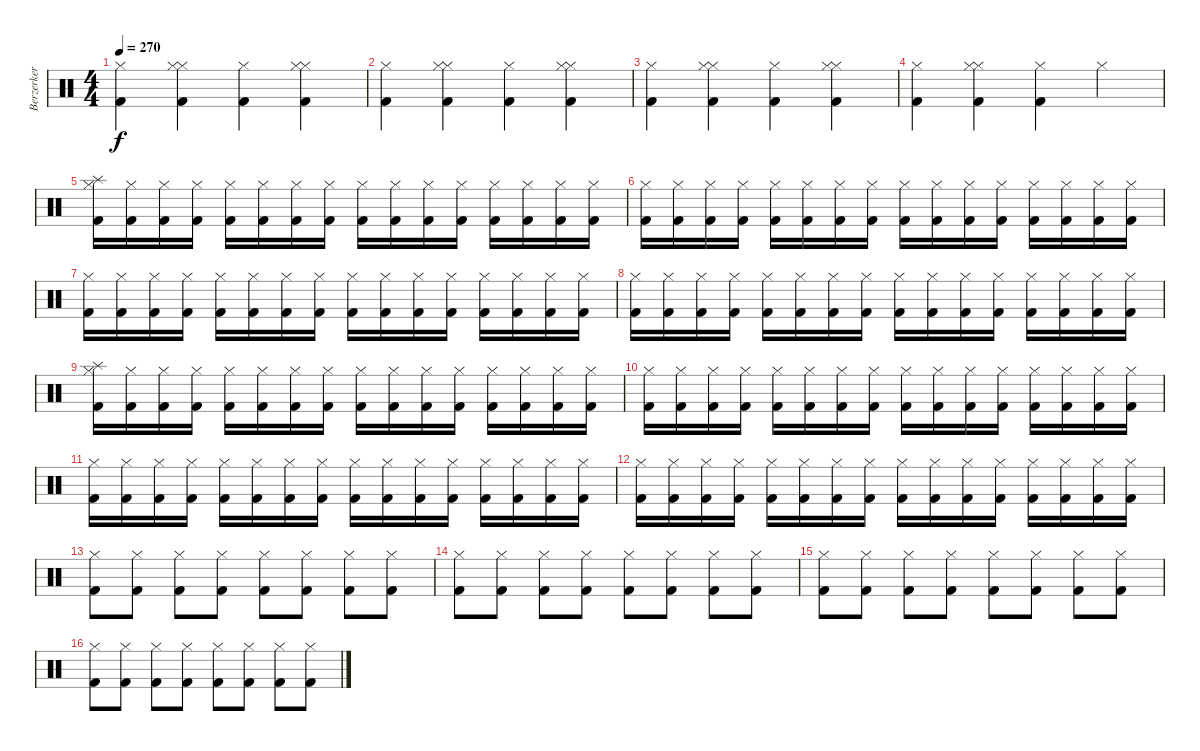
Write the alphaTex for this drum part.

\track ("Berzerker Drum Machine" "Berzerker ") {instrument percussion}
\staff {score}
\articulation defaults
\ts (4 4)
\tempo 270
\clef neutral
\ks c
("Kick (hit) 2" "Hi-Hat (closed)").4{dy f} ("Hi-Hat (closed)" "Kick (hit) 2" "Hi-Hat (closed)").4 ("Kick (hit) 2" "Hi-Hat (closed)").4 ("Hi-Hat (closed)" "Kick (hit) 2" "Hi-Hat (closed)").4 |
("Kick (hit) 2" "Hi-Hat (closed)").4 ("Hi-Hat (closed)" "Kick (hit) 2" "Hi-Hat (closed)").4 ("Kick (hit) 2" "Hi-Hat (closed)").4 ("Hi-Hat (closed)" "Kick (hit) 2" "Hi-Hat (closed)").4 |
("Kick (hit) 2" "Hi-Hat (closed)").4 ("Hi-Hat (closed)" "Kick (hit) 2" "Hi-Hat (closed)").4 ("Kick (hit) 2" "Hi-Hat (closed)").4 ("Hi-Hat (closed)" "Kick (hit) 2" "Hi-Hat (closed)").4 |
("Kick (hit) 2" "Hi-Hat (closed)").4 ("Hi-Hat (closed)" "Kick (hit) 2" "Hi-Hat (closed)").4 ("Kick (hit) 2" "Hi-Hat (closed)").4 "Hi-Hat (closed)".4 |
("Splash (hit)" "Kick (hit) 2" "Hi-Hat (closed)").16 ("Kick (hit) 2" "Hi-Hat (closed)").16 ("Kick (hit) 2" "Hi-Hat (closed)").16 ("Kick (hit) 2" "Hi-Hat (closed)").16 ("Kick (hit) 2" "Hi-Hat (closed)").16 ("Kick (hit) 2" "Hi-Hat (closed)").16 ("Kick (hit) 2" "Hi-Hat (closed)").16 ("Kick (hit) 2" "Hi-Hat (closed)").16 ("Kick (hit) 2" "Hi-Hat (closed)").16 ("Kick (hit) 2" "Hi-Hat (closed)").16 ("Kick (hit) 2" "Hi-Hat (closed)").16 ("Kick (hit) 2" "Hi-Hat (closed)").16 ("Kick (hit) 2" "Hi-Hat (closed)").16 ("Kick (hit) 2" "Hi-Hat (closed)").16 ("Kick (hit) 2" "Hi-Hat (closed)").16 ("Kick (hit) 2" "Hi-Hat (closed)").16 |
("Kick (hit) 2" "Hi-Hat (closed)").16 ("Kick (hit) 2" "Hi-Hat (closed)").16 ("Kick (hit) 2" "Hi-Hat (closed)").16 ("Kick (hit) 2" "Hi-Hat (closed)").16 ("Kick (hit) 2" "Hi-Hat (closed)").16 ("Kick (hit) 2" "Hi-Hat (closed)").16 ("Kick (hit) 2" "Hi-Hat (closed)").16 ("Kick (hit) 2" "Hi-Hat (closed)").16 ("Kick (hit) 2" "Hi-Hat (closed)").16 ("Kick (hit) 2" "Hi-Hat (closed)").16 ("Kick (hit) 2" "Hi-Hat (closed)").16 ("Kick (hit) 2" "Hi-Hat (closed)").16 ("Kick (hit) 2" "Hi-Hat (closed)").16 ("Kick (hit) 2" "Hi-Hat (closed)").16 ("Kick (hit) 2" "Hi-Hat (closed)").16 ("Kick (hit) 2" "Hi-Hat (closed)").16 |
("Kick (hit) 2" "Hi-Hat (closed)").16 ("Kick (hit) 2" "Hi-Hat (closed)").16 ("Kick (hit) 2" "Hi-Hat (closed)").16 ("Kick (hit) 2" "Hi-Hat (closed)").16 ("Kick (hit) 2" "Hi-Hat (closed)").16 ("Kick (hit) 2" "Hi-Hat (closed)").16 ("Kick (hit) 2" "Hi-Hat (closed)").16 ("Kick (hit) 2" "Hi-Hat (closed)").16 ("Kick (hit) 2" "Hi-Hat (closed)").16 ("Kick (hit) 2" "Hi-Hat (closed)").16 ("Kick (hit) 2" "Hi-Hat (closed)").16 ("Kick (hit) 2" "Hi-Hat (closed)").16 ("Kick (hit) 2" "Hi-Hat (closed)").16 ("Kick (hit) 2" "Hi-Hat (closed)").16 ("Kick (hit) 2" "Hi-Hat (closed)").16 ("Kick (hit) 2" "Hi-Hat (closed)").16 |
("Kick (hit) 2" "Hi-Hat (closed)").16 ("Kick (hit) 2" "Hi-Hat (closed)").16 ("Kick (hit) 2" "Hi-Hat (closed)").16 ("Kick (hit) 2" "Hi-Hat (closed)").16 ("Kick (hit) 2" "Hi-Hat (closed)").16 ("Kick (hit) 2" "Hi-Hat (closed)").16 ("Kick (hit) 2" "Hi-Hat (closed)").16 ("Kick (hit) 2" "Hi-Hat (closed)").16 ("Kick (hit) 2" "Hi-Hat (closed)").16 ("Kick (hit) 2" "Hi-Hat (closed)").16 ("Kick (hit) 2" "Hi-Hat (closed)").16 ("Kick (hit) 2" "Hi-Hat (closed)").16 ("Kick (hit) 2" "Hi-Hat (closed)").16 ("Kick (hit) 2" "Hi-Hat (closed)").16 ("Kick (hit) 2" "Hi-Hat (closed)").16 ("Kick (hit) 2" "Hi-Hat (closed)").16 |
("Splash (hit)" "Kick (hit) 2" "Hi-Hat (closed)").16 ("Kick (hit) 2" "Hi-Hat (closed)").16 ("Kick (hit) 2" "Hi-Hat (closed)").16 ("Kick (hit) 2" "Hi-Hat (closed)").16 ("Kick (hit) 2" "Hi-Hat (closed)").16 ("Kick (hit) 2" "Hi-Hat (closed)").16 ("Kick (hit) 2" "Hi-Hat (closed)").16 ("Kick (hit) 2" "Hi-Hat (closed)").16 ("Kick (hit) 2" "Hi-Hat (closed)").16 ("Kick (hit) 2" "Hi-Hat (closed)").16 ("Kick (hit) 2" "Hi-Hat (closed)").16 ("Kick (hit) 2" "Hi-Hat (closed)").16 ("Kick (hit) 2" "Hi-Hat (closed)").16 ("Kick (hit) 2" "Hi-Hat (closed)").16 ("Kick (hit) 2" "Hi-Hat (closed)").16 ("Kick (hit) 2" "Hi-Hat (closed)").16 |
("Kick (hit) 2" "Hi-Hat (closed)").16 ("Kick (hit) 2" "Hi-Hat (closed)").16 ("Kick (hit) 2" "Hi-Hat (closed)").16 ("Kick (hit) 2" "Hi-Hat (closed)").16 ("Kick (hit) 2" "Hi-Hat (closed)").16 ("Kick (hit) 2" "Hi-Hat (closed)").16 ("Kick (hit) 2" "Hi-Hat (closed)").16 ("Kick (hit) 2" "Hi-Hat (closed)").16 ("Kick (hit) 2" "Hi-Hat (closed)").16 ("Kick (hit) 2" "Hi-Hat (closed)").16 ("Kick (hit) 2" "Hi-Hat (closed)").16 ("Kick (hit) 2" "Hi-Hat (closed)").16 ("Kick (hit) 2" "Hi-Hat (closed)").16 ("Kick (hit) 2" "Hi-Hat (closed)").16 ("Kick (hit) 2" "Hi-Hat (closed)").16 ("Kick (hit) 2" "Hi-Hat (closed)").16 |
("Kick (hit) 2" "Hi-Hat (closed)").16 ("Kick (hit) 2" "Hi-Hat (closed)").16 ("Kick (hit) 2" "Hi-Hat (closed)").16 ("Kick (hit) 2" "Hi-Hat (closed)").16 ("Kick (hit) 2" "Hi-Hat (closed)").16 ("Kick (hit) 2" "Hi-Hat (closed)").16 ("Kick (hit) 2" "Hi-Hat (closed)").16 ("Kick (hit) 2" "Hi-Hat (closed)").16 ("Kick (hit) 2" "Hi-Hat (closed)").16 ("Kick (hit) 2" "Hi-Hat (closed)").16 ("Kick (hit) 2" "Hi-Hat (closed)").16 ("Kick (hit) 2" "Hi-Hat (closed)").16 ("Kick (hit) 2" "Hi-Hat (closed)").16 ("Kick (hit) 2" "Hi-Hat (closed)").16 ("Kick (hit) 2" "Hi-Hat (closed)").16 ("Kick (hit) 2" "Hi-Hat (closed)").16 |
("Kick (hit) 2" "Hi-Hat (closed)").16 ("Kick (hit) 2" "Hi-Hat (closed)").16 ("Kick (hit) 2" "Hi-Hat (closed)").16 ("Kick (hit) 2" "Hi-Hat (closed)").16 ("Kick (hit) 2" "Hi-Hat (closed)").16 ("Kick (hit) 2" "Hi-Hat (closed)").16 ("Kick (hit) 2" "Hi-Hat (closed)").16 ("Kick (hit) 2" "Hi-Hat (closed)").16 ("Kick (hit) 2" "Hi-Hat (closed)").16 ("Kick (hit) 2" "Hi-Hat (closed)").16 ("Kick (hit) 2" "Hi-Hat (closed)").16 ("Kick (hit) 2" "Hi-Hat (closed)").16 ("Kick (hit) 2" "Hi-Hat (closed)").16 ("Kick (hit) 2" "Hi-Hat (closed)").16 ("Kick (hit) 2" "Hi-Hat (closed)").16 ("Kick (hit) 2" "Hi-Hat (closed)").16 |
("Kick (hit) 2" "Hi-Hat (closed)").8 ("Kick (hit) 2" "Hi-Hat (closed)").8 ("Kick (hit) 2" "Hi-Hat (closed)").8 ("Kick (hit) 2" "Hi-Hat (closed)").8 ("Kick (hit) 2" "Hi-Hat (closed)").8 ("Kick (hit) 2" "Hi-Hat (closed)").8 ("Kick (hit) 2" "Hi-Hat (closed)").8 ("Kick (hit) 2" "Hi-Hat (closed)").8 |
("Kick (hit) 2" "Hi-Hat (closed)").8 ("Kick (hit) 2" "Hi-Hat (closed)").8 ("Kick (hit) 2" "Hi-Hat (closed)").8 ("Kick (hit) 2" "Hi-Hat (closed)").8 ("Kick (hit) 2" "Hi-Hat (closed)").8 ("Kick (hit) 2" "Hi-Hat (closed)").8 ("Kick (hit) 2" "Hi-Hat (closed)").8 ("Kick (hit) 2" "Hi-Hat (closed)").8 |
("Kick (hit) 2" "Hi-Hat (closed)").8 ("Kick (hit) 2" "Hi-Hat (closed)").8 ("Kick (hit) 2" "Hi-Hat (closed)").8 ("Kick (hit) 2" "Hi-Hat (closed)").8 ("Kick (hit) 2" "Hi-Hat (closed)").8 ("Kick (hit) 2" "Hi-Hat (closed)").8 ("Kick (hit) 2" "Hi-Hat (closed)").8 ("Kick (hit) 2" "Hi-Hat (closed)").8 |
("Kick (hit) 2" "Hi-Hat (closed)").8 ("Kick (hit) 2" "Hi-Hat (closed)").8 ("Kick (hit) 2" "Hi-Hat (closed)").8 ("Kick (hit) 2" "Hi-Hat (closed)").8 ("Kick (hit) 2" "Hi-Hat (closed)").8 ("Kick (hit) 2" "Hi-Hat (closed)").8 ("Kick (hit) 2" "Hi-Hat (closed)").8 ("Kick (hit) 2" "Hi-Hat (closed)").8
